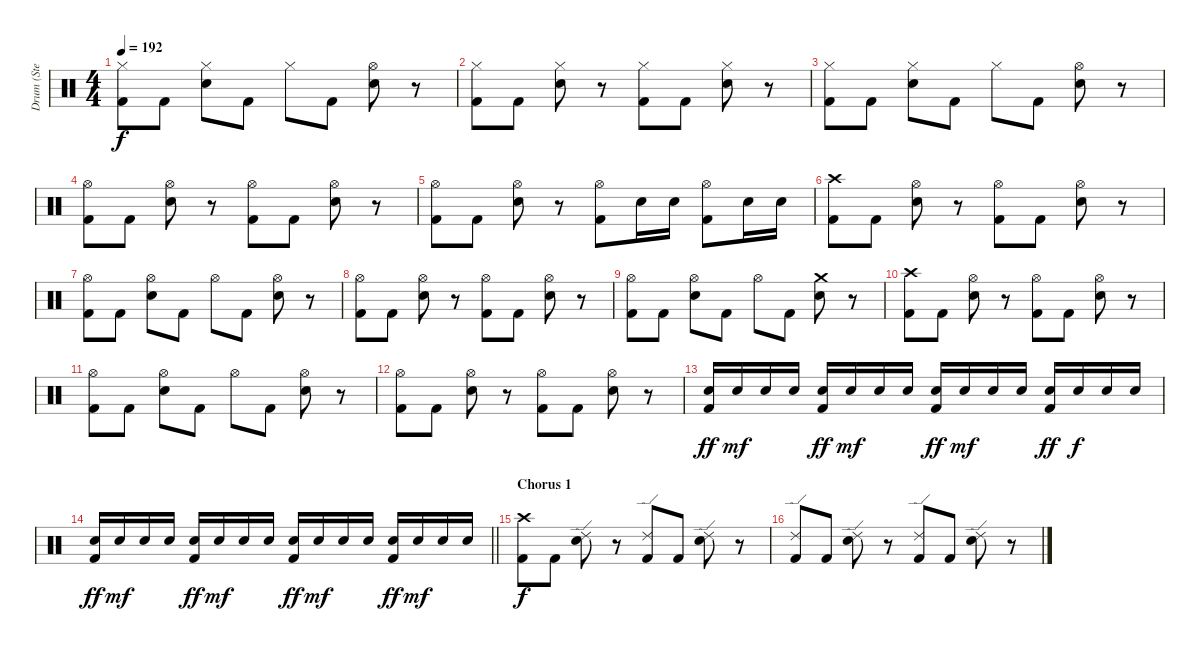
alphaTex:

\track (" Drum (Steve O)" " Drum (Ste") {instrument percussion}
\staff {score}
\articulation defaults
\ts (4 4)
\tempo 192
\clef neutral
\ks c
("Hi-Hat (closed)" "Kick (hit) 2").8{dy f} "Kick (hit) 2".8 ("Hi-Hat (closed)" "Snare (hit) 2").8 "Kick (hit) 2".8 "Hi-Hat (closed)".8 "Kick (hit) 2".8 ("Hi-Hat (open)" "Snare (hit) 2").8 r.8 |
("Hi-Hat (closed)" "Kick (hit) 2").8 "Kick (hit) 2".8 ("Hi-Hat (closed)" "Snare (hit) 2").8 r.8 ("Hi-Hat (closed)" "Kick (hit) 2").8 "Kick (hit) 2".8 ("Hi-Hat (closed)" "Snare (hit) 2").8 r.8 |
("Hi-Hat (closed)" "Kick (hit) 2").8 "Kick (hit) 2".8 ("Hi-Hat (closed)" "Snare (hit) 2").8 "Kick (hit) 2".8 "Hi-Hat (closed)".8 "Kick (hit) 2".8 ("Hi-Hat (open)" "Snare (hit) 2").8 r.8 |
("Hi-Hat (open)" "Kick (hit) 2").8 "Kick (hit) 2".8 ("Hi-Hat (open)" "Snare (hit) 2").8 r.8 ("Hi-Hat (open)" "Kick (hit) 2").8 "Kick (hit) 2".8 ("Hi-Hat (open)" "Snare (hit) 2").8 r.8 |
("Hi-Hat (open)" "Kick (hit) 2").8 "Kick (hit) 2".8 ("Hi-Hat (open)" "Snare (hit) 2").8 r.8 ("Hi-Hat (open)" "Kick (hit) 2").8 "Snare (hit) 2".16 "Snare (hit) 2".16 ("Hi-Hat (open)" "Kick (hit) 2").8 "Snare (hit) 2".16 "Snare (hit) 2".16 |
("Crash high (hit)" "Kick (hit) 2").8 "Kick (hit) 2".8 ("Hi-Hat (open)" "Snare (hit) 2").8 r.8 ("Hi-Hat (open)" "Kick (hit) 2").8 "Kick (hit) 2".8 ("Hi-Hat (open)" "Snare (hit) 2").8 r.8 |
("Hi-Hat (open)" "Kick (hit) 2").8 "Kick (hit) 2".8 ("Hi-Hat (open)" "Snare (hit) 2").8 "Kick (hit) 2".8 "Hi-Hat (open)".8 "Kick (hit) 2".8 ("Hi-Hat (open)" "Snare (hit) 2").8 r.8 |
("Hi-Hat (open)" "Kick (hit) 2").8 "Kick (hit) 2".8 ("Hi-Hat (open)" "Snare (hit) 2").8 r.8 ("Hi-Hat (open)" "Kick (hit) 2").8 "Kick (hit) 2".8 ("Hi-Hat (open)" "Snare (hit) 2").8 r.8 |
("Hi-Hat (open)" "Kick (hit) 2").8 "Kick (hit) 2".8 ("Hi-Hat (open)" "Snare (hit) 2").8 "Kick (hit) 2".8 "Hi-Hat (open)".8 "Kick (hit) 2".8 ("Crash medium (hit)" "Snare (hit) 2").8 r.8 |
("Crash high (hit)" "Kick (hit) 2").8 "Kick (hit) 2".8 ("Hi-Hat (open)" "Snare (hit) 2").8 r.8 ("Hi-Hat (open)" "Kick (hit) 2").8 "Kick (hit) 2".8 ("Hi-Hat (open)" "Snare (hit) 2").8 r.8 |
("Hi-Hat (open)" "Kick (hit) 2").8 "Kick (hit) 2".8 ("Hi-Hat (open)" "Snare (hit) 2").8 "Kick (hit) 2".8 "Hi-Hat (open)".8 "Kick (hit) 2".8 ("Hi-Hat (open)" "Snare (hit) 2").8 r.8 |
("Hi-Hat (open)" "Kick (hit) 2").8 "Kick (hit) 2".8 ("Hi-Hat (open)" "Snare (hit) 2").8 r.8 ("Hi-Hat (open)" "Kick (hit) 2").8 "Kick (hit) 2".8 ("Hi-Hat (open)" "Snare (hit) 2").8 r.8 |
("Snare (hit) 2" "Kick (hit) 2").16{dy ff} "Snare (hit) 2".16{dy mf} "Snare (hit) 2".16 "Snare (hit) 2".16 ("Snare (hit) 2" "Kick (hit) 2").16{dy ff} "Snare (hit) 2".16{dy mf} "Snare (hit) 2".16 "Snare (hit) 2".16 ("Snare (hit) 2" "Kick (hit) 2").16{dy ff} "Snare (hit) 2".16{dy mf} "Snare (hit) 2".16 "Snare (hit) 2".16 ("Snare (hit) 2" "Kick (hit) 2").16{dy ff} "Snare (hit) 2".16{dy f} "Snare (hit) 2".16 "Snare (hit) 2".16 |
\barLineRight lightlight
("Snare (hit) 2" "Kick (hit) 2").16{dy ff} "Snare (hit) 2".16{dy mf} "Snare (hit) 2".16 "Snare (hit) 2".16 ("Snare (hit) 2" "Kick (hit) 2").16{dy ff} "Snare (hit) 2".16{dy mf} "Snare (hit) 2".16 "Snare (hit) 2".16 ("Snare (hit) 2" "Kick (hit) 2").16{dy ff} "Snare (hit) 2".16{dy mf} "Snare (hit) 2".16 "Snare (hit) 2".16 ("Snare (hit) 2" "Kick (hit) 2").16{dy ff} "Snare (hit) 2".16{dy mf} "Snare (hit) 2".16 "Snare (hit) 2".16 |
\section ("" "Chorus 1")
("Crash high (hit)" "Kick (hit) 2").8{dy f} "Kick (hit) 2".8 ("Ride (edge) 2" "Snare (hit) 2").8 r.8 ("Ride (edge) 2" "Kick (hit) 2").8 "Kick (hit) 2".8 ("Ride (edge) 2" "Snare (hit) 2").8 r.8 |
("Ride (edge) 2" "Kick (hit) 2").8 "Kick (hit) 2".8 ("Ride (edge) 2" "Snare (hit) 2").8 r.8 ("Ride (edge) 2" "Kick (hit) 2").8 "Kick (hit) 2".8 ("Ride (edge) 2" "Snare (hit) 2").8 r.8
